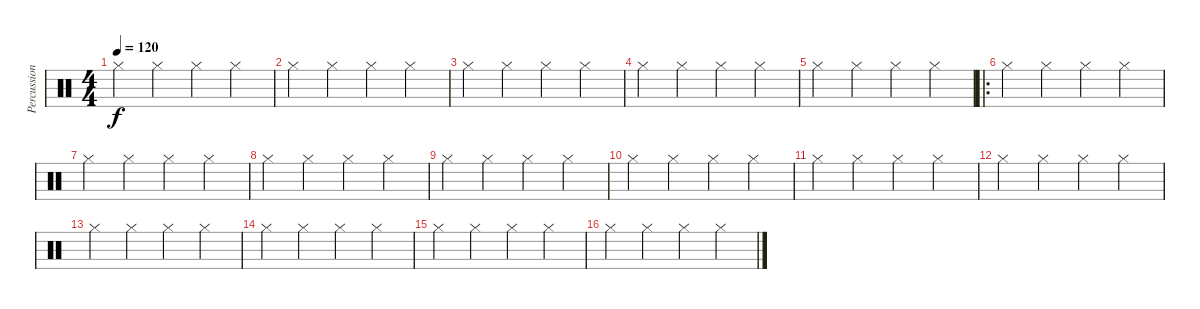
\track ("Percussioni" "Percussion") {instrument percussion}
\staff {score}
\articulation defaults
\ts (4 4)
\tempo 120
\clef neutral
\ks c "Hi-Hat (closed)".4{dy f} "Hi-Hat (closed)".4 "Hi-Hat (closed)".4 "Hi-Hat (closed)".4
|
"Hi-Hat (closed)".4 "Hi-Hat (closed)".4 "Hi-Hat (closed)".4 "Hi-Hat (closed)".4 |
"Hi-Hat (closed)".4 "Hi-Hat (closed)".4 "Hi-Hat (closed)".4 "Hi-Hat (closed)".4 |
"Hi-Hat (closed)".4 "Hi-Hat (closed)".4 "Hi-Hat (closed)".4 "Hi-Hat (closed)".4 |
"Hi-Hat (closed)".4 "Hi-Hat (closed)".4 "Hi-Hat (closed)".4 "Hi-Hat (closed)".4 |
\ro "Hi-Hat (closed)".4 "Hi-Hat (closed)".4 "Hi-Hat (closed)".4 "Hi-Hat (closed)".4
|
"Hi-Hat (closed)".4 "Hi-Hat (closed)".4 "Hi-Hat (closed)".4 "Hi-Hat (closed)".4 |
"Hi-Hat (closed)".4 "Hi-Hat (closed)".4 "Hi-Hat (closed)".4 "Hi-Hat (closed)".4 |
"Hi-Hat (closed)".4 "Hi-Hat (closed)".4 "Hi-Hat (closed)".4 "Hi-Hat (closed)".4 |
"Hi-Hat (closed)".4 "Hi-Hat (closed)".4 "Hi-Hat (closed)".4 "Hi-Hat (closed)".4 |
"Hi-Hat (closed)".4 "Hi-Hat (closed)".4 "Hi-Hat (closed)".4 "Hi-Hat (closed)".4 |
"Hi-Hat (closed)".4 "Hi-Hat (closed)".4 "Hi-Hat (closed)".4 "Hi-Hat (closed)".4 |
"Hi-Hat (closed)".4 "Hi-Hat (closed)".4 "Hi-Hat (closed)".4 "Hi-Hat (closed)".4 |
"Hi-Hat (closed)".4 "Hi-Hat (closed)".4 "Hi-Hat (closed)".4 "Hi-Hat (closed)".4 |
"Hi-Hat (closed)".4 "Hi-Hat (closed)".4 "Hi-Hat (closed)".4 "Hi-Hat (closed)".4 |
"Hi-Hat (closed)".4 "Hi-Hat (closed)".4 "Hi-Hat (closed)".4 "Hi-Hat (closed)".4
